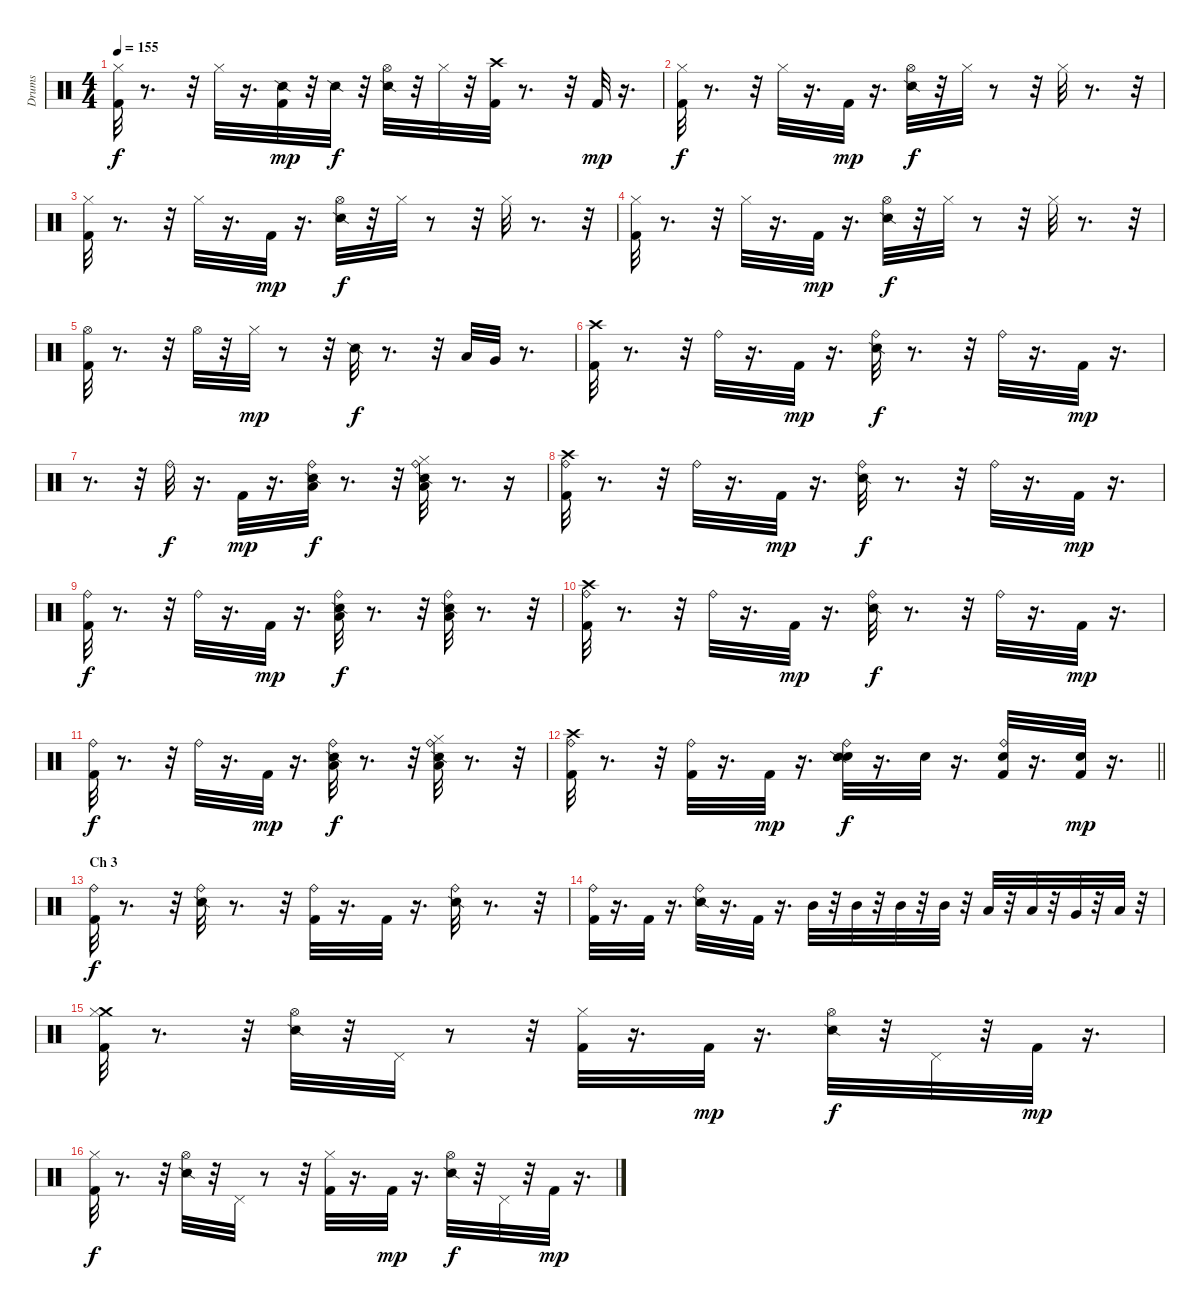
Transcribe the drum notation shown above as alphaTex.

\track ("Drums" "Drums") {instrument percussion}
\staff {score}
\articulation defaults
\ts (4 4)
\tempo 155
\clef neutral
\ks c
("Hi-Hat (closed)" "Kick (hit) 2").32{dy f} r.8{d} r.32 "Hi-Hat (closed)".32 r.16{d} ("Snare (side stick) 2" "Kick (hit) 2").32{dy mp} r.32 "Snare (side stick) 2".32{dy f} r.32 ("Hi-Hat (open)" "Snare (side stick) 2").32 r.32 "Hi-Hat (closed)".32 r.32 ("Crash high (hit)" "Kick (hit) 2").32 r.8{d} r.32 "Kick (hit) 2".32{dy mp} r.16{d} |
("Hi-Hat (closed)" "Kick (hit) 2").32{dy f} r.8{d} r.32 "Hi-Hat (closed)".32 r.16{d} "Kick (hit) 2".32{dy mp} r.16{d} ("Hi-Hat (open)" "Snare (side stick) 2").32{dy f} r.32 "Hi-Hat (closed)".32 r.8 r.32 "Hi-Hat (closed)".32 r.8{d} r.32 |
("Hi-Hat (closed)" "Kick (hit) 2").32 r.8{d} r.32 "Hi-Hat (closed)".32 r.16{d} "Kick (hit) 2".32{dy mp} r.16{d} ("Hi-Hat (open)" "Snare (side stick) 2").32{dy f} r.32 "Hi-Hat (closed)".32 r.8 r.32 "Hi-Hat (closed)".32 r.8{d} r.32 |
("Hi-Hat (closed)" "Kick (hit) 2").32 r.8{d} r.32 "Hi-Hat (closed)".32 r.16{d} "Kick (hit) 2".32{dy mp} r.16{d} ("Hi-Hat (open)" "Snare (side stick) 2").32{dy f} r.32 "Hi-Hat (closed)".32 r.8 r.32 "Hi-Hat (closed)".32 r.8{d} r.32 |
("Kick (hit) 2" "Hi-Hat (open)").32 r.8{d} r.32 "Hi-Hat (open)".32 r.32 "Hi-Hat (closed)".32{dy mp} r.8 r.32 "Snare (side stick) 2".32{dy f} r.8{d} r.32 "Low Tom (hit)".32 "Very Low Tom (hit)".32 r.8{d} |
("Crash high (hit)" "Kick (hit) 2").32 r.8{d} r.32 "Ride (bell)".32 r.16{d} "Kick (hit) 2".32{dy mp} r.16{d} ("Ride (bell)" "Snare (side stick) 2").32{dy f} r.8{d} r.32 "Ride (bell)".32 r.16{d} "Kick (hit) 2".32{dy mp} r.16{d} |
r.8{d} r.32 "Ride (bell)".32{dy f} r.16{d} "Kick (hit) 2".32{dy mp} r.16{d} ("Ride (bell)" "Low Tom (hit)" "Snare (side stick) 2").32{dy f} r.8{d} r.32 ("Ride (bell)" "Hi-Hat (closed)" "Snare (side stick) 2" "Low Floor Tom (hit)").32 r.8{d} r.16 |
("Ride (bell)" "Crash high (hit)" "Kick (hit) 2").32 r.8{d} r.32 "Ride (bell)".32 r.16{d} "Kick (hit) 2".32{dy mp} r.16{d} ("Ride (bell)" "Snare (side stick) 2").32{dy f} r.8{d} r.32 "Ride (bell)".32 r.16{d} "Kick (hit) 2".32{dy mp} r.16{d} |
("Ride (bell)" "Kick (hit) 2").32{dy f} r.8{d} r.32 "Ride (bell)".32 r.16{d} "Kick (hit) 2".32{dy mp} r.16{d} ("Ride (bell)" "Low Tom (hit)" "Snare (side stick) 2").32{dy f} r.8{d} r.32 ("Ride (bell)" "Snare (side stick) 2" "Low Floor Tom (hit)").32 r.8{d} r.32 |
("Ride (bell)" "Crash high (hit)" "Kick (hit) 2").32 r.8{d} r.32 "Ride (bell)".32 r.16{d} "Kick (hit) 2".32{dy mp} r.16{d} ("Ride (bell)" "Snare (side stick) 2").32{dy f} r.8{d} r.32 "Ride (bell)".32 r.16{d} "Kick (hit) 2".32{dy mp} r.16{d} |
("Ride (bell)" "Kick (hit) 2").32{dy f} r.8{d} r.32 "Ride (bell)".32 r.16{d} "Kick (hit) 2".32{dy mp} r.16{d} ("Ride (bell)" "Low Tom (hit)" "Snare (side stick) 2").32{dy f} r.8{d} r.32 ("Ride (bell)" "Hi-Hat (closed)" "Snare (side stick) 2" "Low Floor Tom (hit)").32 r.8{d} r.32 |
\barLineRight lightlight
("Ride (bell)" "Crash high (hit)" "Kick (hit) 2").32 r.8{d} r.32 ("Kick (hit) 2" "Ride (bell)").32 r.16{d} "Kick (hit) 2".32{dy mp} r.16{d} ("Snare (hit)" "Ride (bell)" "Snare (side stick) 2").32{dy f} r.16{d} "Snare (hit)".32 r.16{d} ("Snare (hit)" "Kick (hit) 2" "Ride (bell)").32 r.16{d} ("Snare (hit)" "Kick (hit) 2").32{dy mp} r.16{d} |
\section ("" "Ch 3")
("Ride (bell)" "Kick (hit) 2").32{dy f} r.8{d} r.32 ("Ride (bell)" "Snare (side stick) 2").32 r.8{d} r.32 ("Ride (bell)" "Kick (hit) 2").32 r.16{d} "Kick (hit) 2".32 r.16{d} ("Ride (bell)" "Snare (side stick) 2").32 r.8{d} r.32 |
("Ride (bell)" "Kick (hit) 2").32 r.16{d} "Kick (hit) 2".32 r.16{d} ("Ride (bell)" "Snare (side stick) 2").32 r.16{d} "Kick (hit) 2".32 r.16{d} "Mid Tom (hit)".32 r.32 "Mid Tom (hit)".32 r.32 "Mid Tom (hit)".32 r.32 "Mid Tom (hit)".32 r.32 "Low Tom (hit)".32 r.32 "Low Tom (hit)".32 r.32 "Very Low Tom (hit)".32 r.32 "Low Floor Tom (hit)".32 r.32 |
("Crash medium (hit)" "Kick (hit) 2" "Hi-Hat (closed)").32 r.8{d} r.32 ("Hi-Hat (open)" "Snare (side stick) 2").32 r.32 "Pedal Hi-Hat (hit)".32 r.8 r.32 ("Kick (hit) 2" "Hi-Hat (closed)").32 r.16{d} "Kick (hit) 2".32{dy mp} r.16{d} ("Hi-Hat (open)" "Snare (side stick) 2").32{dy f} r.32 "Pedal Hi-Hat (hit)".32 r.32 "Kick (hit) 2".32{dy mp} r.16{d} |
("Hi-Hat (closed)" "Kick (hit) 2").32{dy f} r.8{d} r.32 ("Hi-Hat (open)" "Snare (side stick) 2").32 r.32 "Pedal Hi-Hat (hit)".32 r.8 r.32 ("Hi-Hat (closed)" "Kick (hit) 2").32 r.16{d} "Kick (hit) 2".32{dy mp} r.16{d} ("Hi-Hat (open)" "Snare (side stick) 2").32{dy f} r.32 "Pedal Hi-Hat (hit)".32 r.32 "Kick (hit) 2".32{dy mp} r.16{d}
